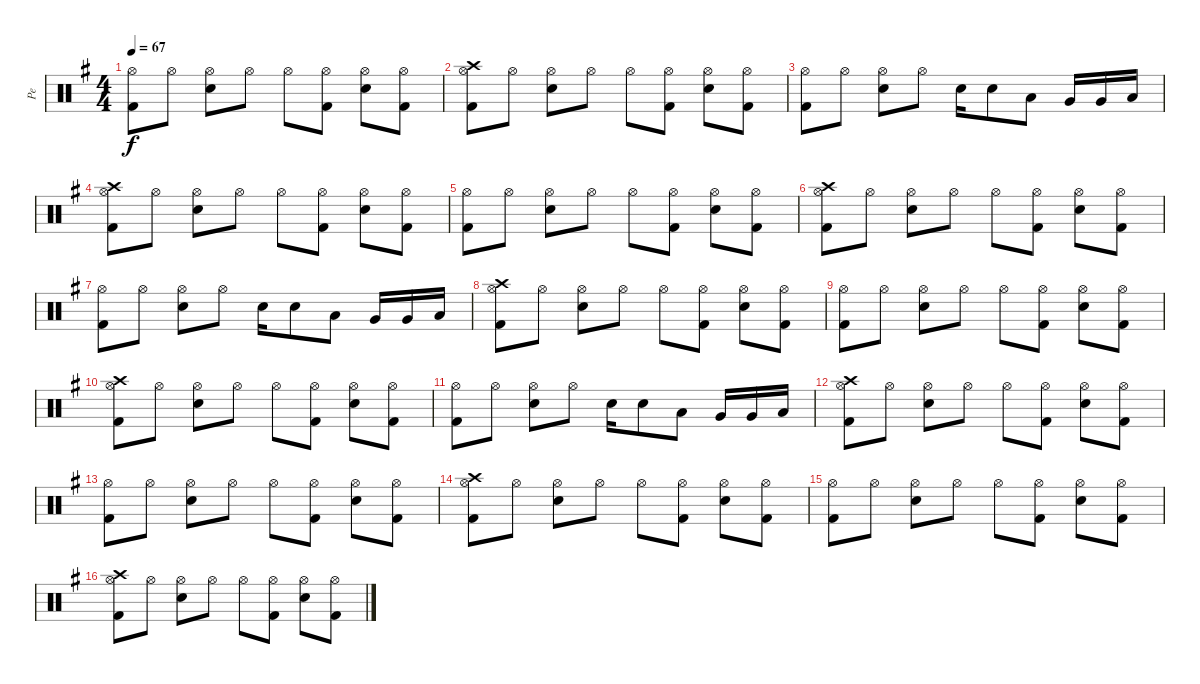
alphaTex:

\track ("Pe" "Pe") {instrument percussion}
\staff {score}
\articulation defaults
\ts (4 4)
\tempo 67
\clef neutral
\ks g
("Hi-Hat (open)" "Kick (hit) 2").8{dy f} "Hi-Hat (open)".8 ("Snare (hit) 2" "Hi-Hat (open)").8 "Hi-Hat (open)".8 "Hi-Hat (open)".8 ("Hi-Hat (open)" "Kick (hit) 2").8 ("Snare (hit) 2" "Hi-Hat (open)").8 ("Hi-Hat (open)" "Kick (hit) 2").8 |
("Crash high (hit)" "Hi-Hat (open)" "Kick (hit) 2").8 "Hi-Hat (open)".8 ("Snare (hit) 2" "Hi-Hat (open)").8 "Hi-Hat (open)".8 "Hi-Hat (open)".8 ("Hi-Hat (open)" "Kick (hit) 2").8 ("Snare (hit) 2" "Hi-Hat (open)").8 ("Hi-Hat (open)" "Kick (hit) 2").8 |
("Hi-Hat (open)" "Kick (hit) 2").8 "Hi-Hat (open)".8 ("Snare (hit) 2" "Hi-Hat (open)").8 "Hi-Hat (open)".8 "Snare (hit) 2".16 "Snare (hit) 2".8 "Low Tom (hit)".8 "Very Low Tom (hit)".16 "Very Low Tom (hit)".16 "Low Floor Tom (hit)".16 |
("Crash high (hit)" "Hi-Hat (open)" "Kick (hit) 2").8 "Hi-Hat (open)".8 ("Snare (hit) 2" "Hi-Hat (open)").8 "Hi-Hat (open)".8 "Hi-Hat (open)".8 ("Hi-Hat (open)" "Kick (hit) 2").8 ("Snare (hit) 2" "Hi-Hat (open)").8 ("Hi-Hat (open)" "Kick (hit) 2").8 |
("Hi-Hat (open)" "Kick (hit) 2").8 "Hi-Hat (open)".8 ("Snare (hit) 2" "Hi-Hat (open)").8 "Hi-Hat (open)".8 "Hi-Hat (open)".8 ("Hi-Hat (open)" "Kick (hit) 2").8 ("Snare (hit) 2" "Hi-Hat (open)").8 ("Hi-Hat (open)" "Kick (hit) 2").8 |
("Crash high (hit)" "Hi-Hat (open)" "Kick (hit) 2").8 "Hi-Hat (open)".8 ("Snare (hit) 2" "Hi-Hat (open)").8 "Hi-Hat (open)".8 "Hi-Hat (open)".8 ("Hi-Hat (open)" "Kick (hit) 2").8 ("Snare (hit) 2" "Hi-Hat (open)").8 ("Hi-Hat (open)" "Kick (hit) 2").8 |
("Hi-Hat (open)" "Kick (hit) 2").8 "Hi-Hat (open)".8 ("Snare (hit) 2" "Hi-Hat (open)").8 "Hi-Hat (open)".8 "Snare (hit) 2".16 "Snare (hit) 2".8 "Low Tom (hit)".8 "Very Low Tom (hit)".16 "Very Low Tom (hit)".16 "Low Floor Tom (hit)".16 |
("Crash high (hit)" "Hi-Hat (open)" "Kick (hit) 2").8 "Hi-Hat (open)".8 ("Snare (hit) 2" "Hi-Hat (open)").8 "Hi-Hat (open)".8 "Hi-Hat (open)".8 ("Hi-Hat (open)" "Kick (hit) 2").8 ("Snare (hit) 2" "Hi-Hat (open)").8 ("Hi-Hat (open)" "Kick (hit) 2").8 |
("Hi-Hat (open)" "Kick (hit) 2").8 "Hi-Hat (open)".8 ("Snare (hit) 2" "Hi-Hat (open)").8 "Hi-Hat (open)".8 "Hi-Hat (open)".8 ("Hi-Hat (open)" "Kick (hit) 2").8 ("Snare (hit) 2" "Hi-Hat (open)").8 ("Hi-Hat (open)" "Kick (hit) 2").8 |
("Crash high (hit)" "Hi-Hat (open)" "Kick (hit) 2").8 "Hi-Hat (open)".8 ("Snare (hit) 2" "Hi-Hat (open)").8 "Hi-Hat (open)".8 "Hi-Hat (open)".8 ("Hi-Hat (open)" "Kick (hit) 2").8 ("Snare (hit) 2" "Hi-Hat (open)").8 ("Hi-Hat (open)" "Kick (hit) 2").8 |
("Hi-Hat (open)" "Kick (hit) 2").8 "Hi-Hat (open)".8 ("Snare (hit) 2" "Hi-Hat (open)").8 "Hi-Hat (open)".8 "Snare (hit) 2".16 "Snare (hit) 2".8 "Low Tom (hit)".8 "Very Low Tom (hit)".16 "Very Low Tom (hit)".16 "Low Floor Tom (hit)".16 |
("Crash high (hit)" "Hi-Hat (open)" "Kick (hit) 2").8 "Hi-Hat (open)".8 ("Snare (hit) 2" "Hi-Hat (open)").8 "Hi-Hat (open)".8 "Hi-Hat (open)".8 ("Hi-Hat (open)" "Kick (hit) 2").8 ("Snare (hit) 2" "Hi-Hat (open)").8 ("Hi-Hat (open)" "Kick (hit) 2").8 |
("Hi-Hat (open)" "Kick (hit) 2").8 "Hi-Hat (open)".8 ("Snare (hit) 2" "Hi-Hat (open)").8 "Hi-Hat (open)".8 "Hi-Hat (open)".8 ("Hi-Hat (open)" "Kick (hit) 2").8 ("Snare (hit) 2" "Hi-Hat (open)").8 ("Hi-Hat (open)" "Kick (hit) 2").8 |
("Crash high (hit)" "Hi-Hat (open)" "Kick (hit) 2").8 "Hi-Hat (open)".8 ("Snare (hit) 2" "Hi-Hat (open)").8 "Hi-Hat (open)".8 "Hi-Hat (open)".8 ("Hi-Hat (open)" "Kick (hit) 2").8 ("Snare (hit) 2" "Hi-Hat (open)").8 ("Hi-Hat (open)" "Kick (hit) 2").8 |
("Hi-Hat (open)" "Kick (hit) 2").8 "Hi-Hat (open)".8 ("Snare (hit) 2" "Hi-Hat (open)").8 "Hi-Hat (open)".8 "Hi-Hat (open)".8 ("Hi-Hat (open)" "Kick (hit) 2").8 ("Snare (hit) 2" "Hi-Hat (open)").8 ("Hi-Hat (open)" "Kick (hit) 2").8 |
("Crash high (hit)" "Hi-Hat (open)" "Kick (hit) 2").8 "Hi-Hat (open)".8 ("Snare (hit) 2" "Hi-Hat (open)").8 "Hi-Hat (open)".8 "Hi-Hat (open)".8 ("Hi-Hat (open)" "Kick (hit) 2").8 ("Snare (hit) 2" "Hi-Hat (open)").8 ("Hi-Hat (open)" "Kick (hit) 2").8
